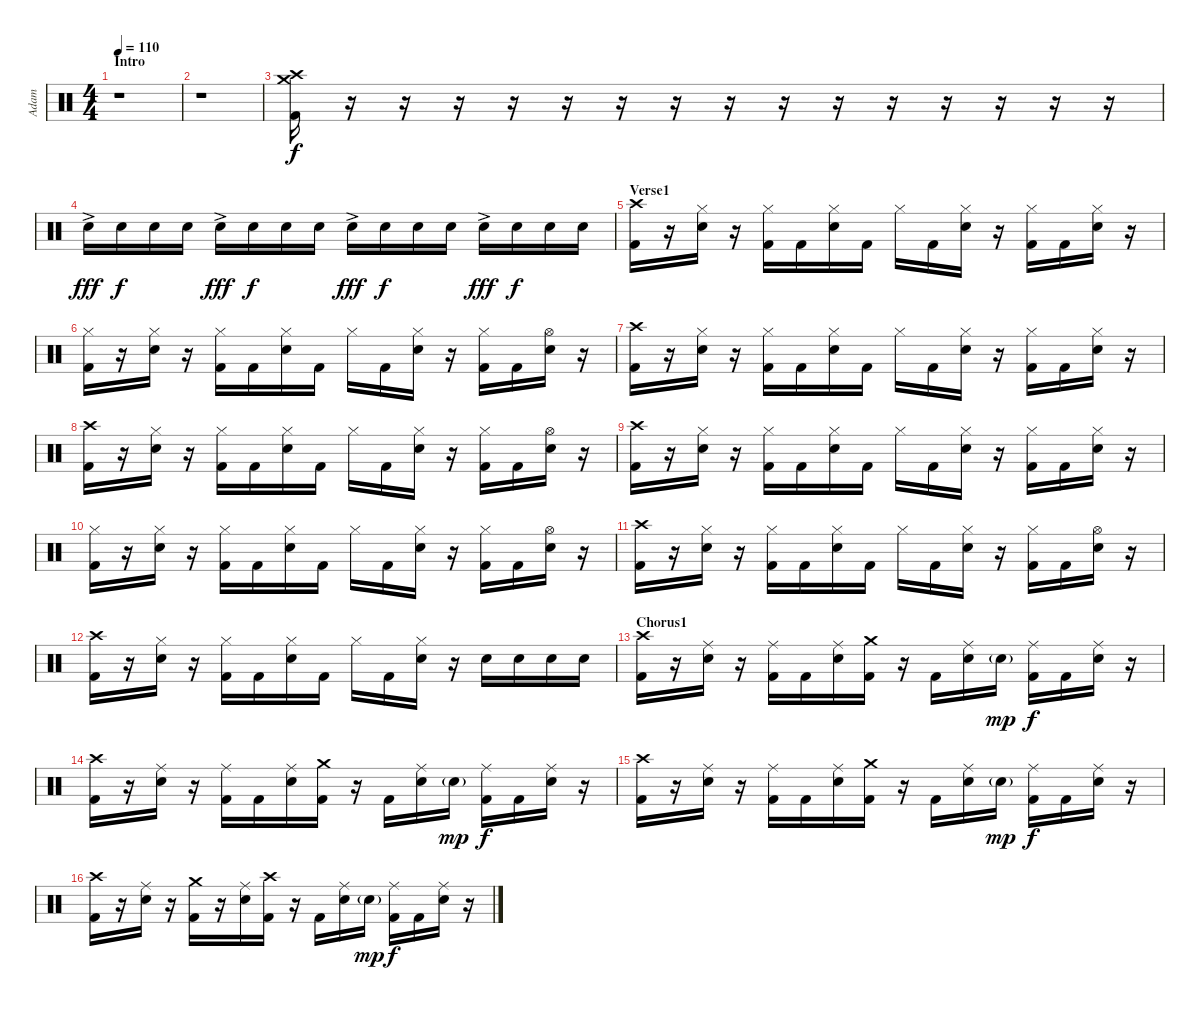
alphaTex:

\track ("Adam" "Adam") {instrument percussion}
\staff {score}
\articulation defaults
\ts (4 4)
\section ("" "Intro")
\tempo 110
\clef neutral
\ks c
r.1{dy f} |
r.1 |
("Crash high (hit)" "Crash medium (hit)" "Kick (hit) 2").16 r.16 r.16 r.16 r.16 r.16 r.16 r.16 r.16 r.16 r.16 r.16 r.16 r.16 r.16 r.16 |
"Electric Snare (hit)"{ac}.16{dy fff} "Electric Snare (hit)".16{dy f} "Electric Snare (hit)".16 "Electric Snare (hit)".16 "Electric Snare (hit)"{ac}.16{dy fff} "Electric Snare (hit)".16{dy f} "Electric Snare (hit)".16 "Electric Snare (hit)".16 "Electric Snare (hit)"{ac}.16{dy fff} "Electric Snare (hit)".16{dy f} "Electric Snare (hit)".16 "Electric Snare (hit)".16 "Electric Snare (hit)"{ac}.16{dy fff} "Electric Snare (hit)".16{dy f} "Electric Snare (hit)".16 "Electric Snare (hit)".16 |
\section ("" "Verse1")
("Crash high (hit)" "Kick (hit) 2").16 r.16 ("Hi-Hat (closed)" "Electric Snare (hit)").16 r.16 ("Hi-Hat (closed)" "Kick (hit) 2").16 "Kick (hit) 2".16 ("Hi-Hat (closed)" "Electric Snare (hit)").16 "Kick (hit) 2".16 "Hi-Hat (closed)".16 "Kick (hit) 2".16 ("Hi-Hat (closed)" "Electric Snare (hit)").16 r.16 ("Hi-Hat (closed)" "Kick (hit) 2").16 "Kick (hit) 2".16 ("Hi-Hat (closed)" "Electric Snare (hit)").16 r.16 |
("Hi-Hat (closed)" "Kick (hit) 2").16 r.16 ("Hi-Hat (closed)" "Electric Snare (hit)").16 r.16 ("Hi-Hat (closed)" "Kick (hit) 2").16 "Kick (hit) 2".16 ("Hi-Hat (closed)" "Electric Snare (hit)").16 "Kick (hit) 2".16 "Hi-Hat (closed)".16 "Kick (hit) 2".16 ("Hi-Hat (closed)" "Electric Snare (hit)").16 r.16 ("Hi-Hat (closed)" "Kick (hit) 2").16 "Kick (hit) 2".16 ("Hi-Hat (open)" "Electric Snare (hit)").16 r.16 |
("Crash high (hit)" "Kick (hit) 2").16 r.16 ("Hi-Hat (closed)" "Electric Snare (hit)").16 r.16 ("Hi-Hat (closed)" "Kick (hit) 2").16 "Kick (hit) 2".16 ("Hi-Hat (closed)" "Electric Snare (hit)").16 "Kick (hit) 2".16 "Hi-Hat (closed)".16 "Kick (hit) 2".16 ("Hi-Hat (closed)" "Electric Snare (hit)").16 r.16 ("Hi-Hat (closed)" "Kick (hit) 2").16 "Kick (hit) 2".16 ("Hi-Hat (closed)" "Electric Snare (hit)").16 r.16 |
("Crash high (hit)" "Kick (hit) 2").16 r.16 ("Hi-Hat (closed)" "Electric Snare (hit)").16 r.16 ("Hi-Hat (closed)" "Kick (hit) 2").16 "Kick (hit) 2".16 ("Hi-Hat (closed)" "Electric Snare (hit)").16 "Kick (hit) 2".16 "Hi-Hat (closed)".16 "Kick (hit) 2".16 ("Hi-Hat (closed)" "Electric Snare (hit)").16 r.16 ("Hi-Hat (closed)" "Kick (hit) 2").16 "Kick (hit) 2".16 ("Hi-Hat (open)" "Electric Snare (hit)").16 r.16 |
("Crash high (hit)" "Kick (hit) 2").16 r.16 ("Hi-Hat (closed)" "Electric Snare (hit)").16 r.16 ("Hi-Hat (closed)" "Kick (hit) 2").16 "Kick (hit) 2".16 ("Hi-Hat (closed)" "Electric Snare (hit)").16 "Kick (hit) 2".16 "Hi-Hat (closed)".16 "Kick (hit) 2".16 ("Hi-Hat (closed)" "Electric Snare (hit)").16 r.16 ("Hi-Hat (closed)" "Kick (hit) 2").16 "Kick (hit) 2".16 ("Hi-Hat (closed)" "Electric Snare (hit)").16 r.16 |
("Hi-Hat (closed)" "Kick (hit) 2").16 r.16 ("Hi-Hat (closed)" "Electric Snare (hit)").16 r.16 ("Hi-Hat (closed)" "Kick (hit) 2").16 "Kick (hit) 2".16 ("Hi-Hat (closed)" "Electric Snare (hit)").16 "Kick (hit) 2".16 "Hi-Hat (closed)".16 "Kick (hit) 2".16 ("Hi-Hat (closed)" "Electric Snare (hit)").16 r.16 ("Hi-Hat (closed)" "Kick (hit) 2").16 "Kick (hit) 2".16 ("Hi-Hat (open)" "Electric Snare (hit)").16 r.16 |
("Crash high (hit)" "Kick (hit) 2").16 r.16 ("Hi-Hat (closed)" "Electric Snare (hit)").16 r.16 ("Hi-Hat (closed)" "Kick (hit) 2").16 "Kick (hit) 2".16 ("Hi-Hat (closed)" "Electric Snare (hit)").16 "Kick (hit) 2".16 "Hi-Hat (closed)".16 "Kick (hit) 2".16 ("Hi-Hat (closed)" "Electric Snare (hit)").16 r.16 ("Hi-Hat (closed)" "Kick (hit) 2").16 "Kick (hit) 2".16 ("Hi-Hat (open)" "Electric Snare (hit)").16 r.16 |
("Crash high (hit)" "Kick (hit) 2").16 r.16 ("Hi-Hat (closed)" "Electric Snare (hit)").16 r.16 ("Hi-Hat (closed)" "Kick (hit) 2").16 "Kick (hit) 2".16 ("Hi-Hat (closed)" "Electric Snare (hit)").16 "Kick (hit) 2".16 "Hi-Hat (closed)".16 "Kick (hit) 2".16 ("Hi-Hat (closed)" "Electric Snare (hit)").16 r.16 "Electric Snare (hit)".16 "Electric Snare (hit)".16 "Electric Snare (hit)".16 "Electric Snare (hit)".16 |
\section ("" "Chorus1")
("Crash high (hit)" "Kick (hit) 2").16 r.16 ("Ride (middle)" "Electric Snare (hit)").16 r.16 ("Ride (middle)" "Kick (hit) 2").16 "Kick (hit) 2".16 ("Ride (middle)" "Electric Snare (hit)").16 ("Crash medium (hit)" "Kick (hit) 2").16 r.16 "Kick (hit) 2".16 ("Ride (middle)" "Electric Snare (hit)").16 "Electric Snare (hit)"{g}.16{dy mp} ("Ride (middle)" "Kick (hit) 2").16{dy f} "Kick (hit) 2".16 ("Ride (middle)" "Electric Snare (hit)").16 r.16 |
("Crash high (hit)" "Kick (hit) 2").16 r.16 ("Ride (middle)" "Electric Snare (hit)").16 r.16 ("Ride (middle)" "Kick (hit) 2").16 "Kick (hit) 2".16 ("Ride (middle)" "Electric Snare (hit)").16 ("Crash medium (hit)" "Kick (hit) 2").16 r.16 "Kick (hit) 2".16 ("Ride (middle)" "Electric Snare (hit)").16 "Electric Snare (hit)"{g}.16{dy mp} ("Ride (middle)" "Kick (hit) 2").16{dy f} "Kick (hit) 2".16 ("Ride (middle)" "Electric Snare (hit)").16 r.16 |
("Crash high (hit)" "Kick (hit) 2").16 r.16 ("Ride (middle)" "Electric Snare (hit)").16 r.16 ("Ride (middle)" "Kick (hit) 2").16 "Kick (hit) 2".16 ("Ride (middle)" "Electric Snare (hit)").16 ("Crash medium (hit)" "Kick (hit) 2").16 r.16 "Kick (hit) 2".16 ("Ride (middle)" "Electric Snare (hit)").16 "Electric Snare (hit)"{g}.16{dy mp} ("Ride (middle)" "Kick (hit) 2").16{dy f} "Kick (hit) 2".16 ("Ride (middle)" "Electric Snare (hit)").16 r.16 |
("Crash high (hit)" "Kick (hit) 2").16 r.16 ("Ride (middle)" "Electric Snare (hit)").16 r.16 ("Crash medium (hit)" "Kick (hit) 2").16 r.16 ("Ride (middle)" "Electric Snare (hit)").16 ("Crash high (hit)" "Kick (hit) 2").16 r.16 "Kick (hit) 2".16 ("Ride (middle)" "Electric Snare (hit)").16 "Electric Snare (hit)"{g}.16{dy mp} ("Ride (middle)" "Kick (hit) 2").16{dy f} "Kick (hit) 2".16 ("Ride (middle)" "Electric Snare (hit)").16 r.16
